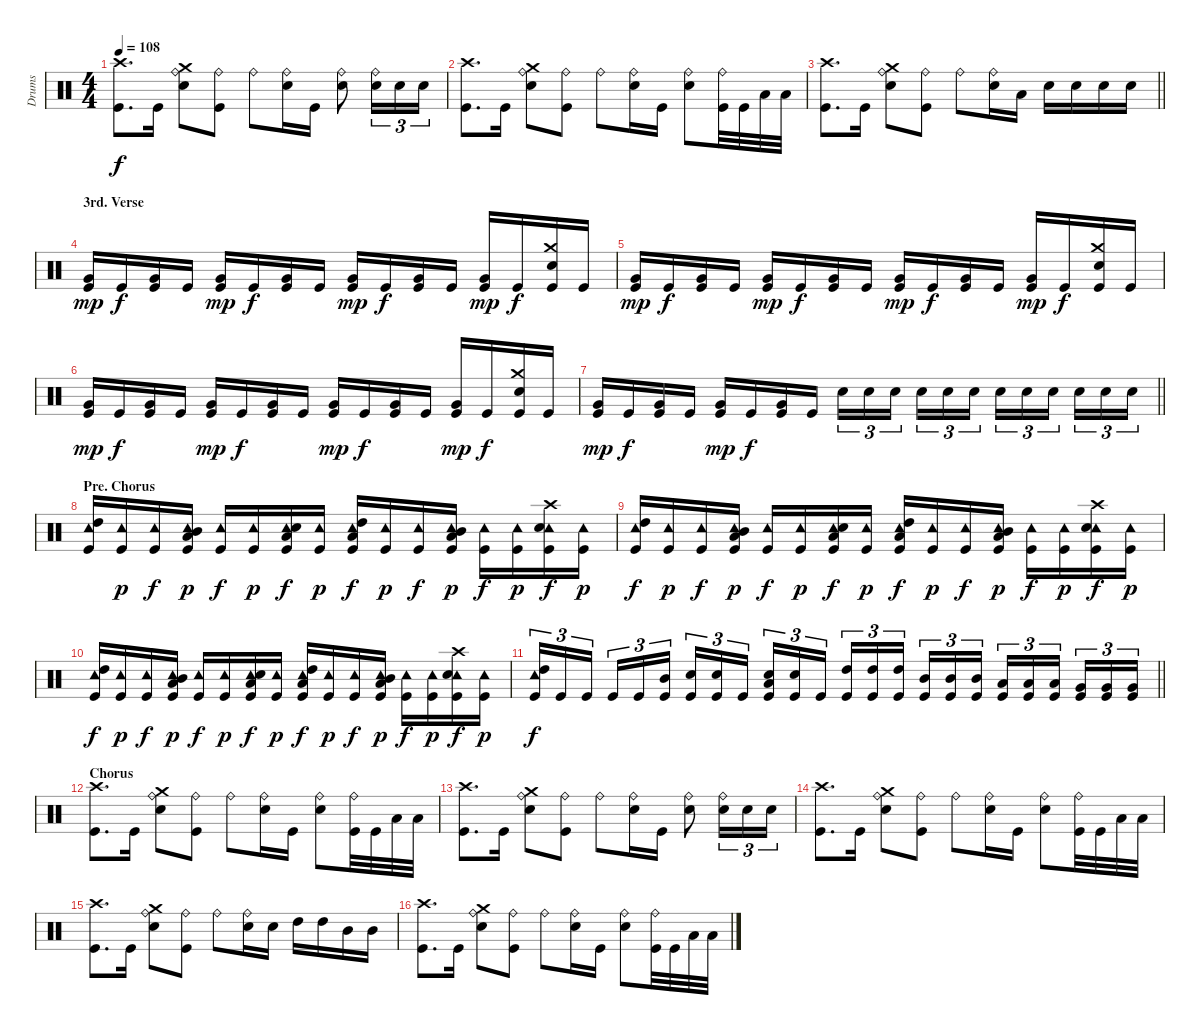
\track ("Drums" "Drums") {instrument percussion}
\staff {score}
\articulation defaults
\ts (4 4)
\tempo 108
\clef neutral
\ks c
("Crash high (hit)" "Kick (hit)").8{d dy f} "Kick (hit)".16 ("Crash medium (hit)" "Ride (bell)" "Electric Snare (hit)").8 ("Ride (bell)" "Kick (hit)").8 "Ride (bell)".8 ("Ride (bell)" "Electric Snare (hit)").16 "Kick (hit)".16 ("Ride (bell)" "Electric Snare (hit)").8 ("Ride (bell)" "Electric Snare (hit)").16{tu (3 2)} "Electric Snare (hit)".16{tu (3 2)} "Electric Snare (hit)".16{tu (3 2)} |
("Crash high (hit)" "Kick (hit)").8{d} "Kick (hit)".16 ("Crash medium (hit)" "Ride (bell)" "Electric Snare (hit)").8 ("Ride (bell)" "Kick (hit)").8 "Ride (bell)".8 ("Ride (bell)" "Electric Snare (hit)").16 "Kick (hit)".16 ("Ride (bell)" "Electric Snare (hit)").8 ("Ride (bell)" "Kick (hit)").32 "Kick (hit)".32 "Low Tom (hit)".32 "Low Tom (hit)".32 |
\barLineRight lightlight
("Crash high (hit)" "Kick (hit)").8{d} "Kick (hit)".16 ("Crash medium (hit)" "Ride (bell)" "Electric Snare (hit)").8 ("Ride (bell)" "Kick (hit)").8 "Ride (bell)".8 ("Ride (bell)" "Electric Snare (hit)").16 "Low Tom (hit)".16 "Electric Snare (hit)".16 "Electric Snare (hit)".16 "Electric Snare (hit)".16 "Electric Snare (hit)".16 |
\section ("" "3rd. Verse")
("Very Low Tom (hit)" "Kick (hit)").16{dy mp} "Kick (hit)".16{dy f} ("Very Low Tom (hit)" "Kick (hit)").16 "Kick (hit)".16 ("Very Low Tom (hit)" "Kick (hit)").16{dy mp} "Kick (hit)".16{dy f} ("Very Low Tom (hit)" "Kick (hit)").16 "Kick (hit)".16 ("Very Low Tom (hit)" "Kick (hit)").16{dy mp} "Kick (hit)".16{dy f} ("Very Low Tom (hit)" "Kick (hit)").16 "Kick (hit)".16 ("Very Low Tom (hit)" "Kick (hit)").16{dy mp} "Kick (hit)".16{dy f} ("Crash medium (hit)" "Electric Snare (hit)" "Kick (hit)").16 "Kick (hit)".16 |
("Very Low Tom (hit)" "Kick (hit)").16{dy mp} "Kick (hit)".16{dy f} ("Very Low Tom (hit)" "Kick (hit)").16 "Kick (hit)".16 ("Very Low Tom (hit)" "Kick (hit)").16{dy mp} "Kick (hit)".16{dy f} ("Very Low Tom (hit)" "Kick (hit)").16 "Kick (hit)".16 ("Very Low Tom (hit)" "Kick (hit)").16{dy mp} "Kick (hit)".16{dy f} ("Very Low Tom (hit)" "Kick (hit)").16 "Kick (hit)".16 ("Very Low Tom (hit)" "Kick (hit)").16{dy mp} "Kick (hit)".16{dy f} ("Crash medium (hit)" "Electric Snare (hit)" "Kick (hit)").16 "Kick (hit)".16 |
("Very Low Tom (hit)" "Kick (hit)").16{dy mp} "Kick (hit)".16{dy f} ("Very Low Tom (hit)" "Kick (hit)").16 "Kick (hit)".16 ("Very Low Tom (hit)" "Kick (hit)").16{dy mp} "Kick (hit)".16{dy f} ("Very Low Tom (hit)" "Kick (hit)").16 "Kick (hit)".16 ("Very Low Tom (hit)" "Kick (hit)").16{dy mp} "Kick (hit)".16{dy f} ("Very Low Tom (hit)" "Kick (hit)").16 "Kick (hit)".16 ("Very Low Tom (hit)" "Kick (hit)").16{dy mp} "Kick (hit)".16{dy f} ("Crash medium (hit)" "Electric Snare (hit)" "Kick (hit)").16 "Kick (hit)".16 |
\barLineRight lightlight
("Very Low Tom (hit)" "Kick (hit)").16{dy mp} "Kick (hit)".16{dy f} ("Very Low Tom (hit)" "Kick (hit)").16 "Kick (hit)".16 ("Very Low Tom (hit)" "Kick (hit)").16{dy mp} "Kick (hit)".16{dy f} ("Very Low Tom (hit)" "Kick (hit)").16 "Kick (hit)".16 "Electric Snare (hit)".16{tu (3 2)} "Electric Snare (hit)".16{tu (3 2)} "Electric Snare (hit)".16{tu (3 2) beam splitsecondary} "Electric Snare (hit)".16{tu (3 2)} "Electric Snare (hit)".16{tu (3 2)} "Electric Snare (hit)".16{tu (3 2)} "Electric Snare (hit)".16{tu (3 2)} "Electric Snare (hit)".16{tu (3 2)} "Electric Snare (hit)".16{tu (3 2) beam splitsecondary} "Electric Snare (hit)".16{tu (3 2)} "Electric Snare (hit)".16{tu (3 2)} "Electric Snare (hit)".16{tu (3 2)} |
\section ("" "Pre. Chorus")
("Tambourine (hit)" "High Tom (hit)" "Kick (hit)").16 ("Tambourine (hit)" "Kick (hit)").16{dy p} ("Tambourine (hit)" "Kick (hit)").16{dy f} ("Tambourine (hit)" "Mid Tom (hit)" "Low Tom (hit)" "Kick (hit)").16{dy p} ("Tambourine (hit)" "Kick (hit)").16{dy f} ("Tambourine (hit)" "Kick (hit)").16{dy p} ("Tambourine (hit)" "Low Tom (hit)" "Electric Snare (hit)" "Kick (hit)").16{dy f} ("Tambourine (hit)" "Kick (hit)").16{dy p} ("Tambourine (hit)" "High Tom (hit)" "Low Tom (hit)" "Kick (hit)").16{dy f} ("Tambourine (hit)" "Kick (hit)").16{dy p} ("Tambourine (hit)" "Kick (hit)").16{dy f} ("Tambourine (hit)" "Mid Tom (hit)" "Low Tom (hit)" "Kick (hit)").16{dy p} ("Tambourine (hit)" "Kick (hit)").16{dy f} ("Tambourine (hit)" "Kick (hit)").16{dy p} ("Tambourine (hit)" "Crash high (hit)" "Electric Snare (hit)" "Kick (hit)").16{dy f} ("Tambourine (hit)" "Kick (hit)").16{dy p} |
("Tambourine (hit)" "High Tom (hit)" "Kick (hit)").16{dy f} ("Tambourine (hit)" "Kick (hit)").16{dy p} ("Tambourine (hit)" "Kick (hit)").16{dy f} ("Tambourine (hit)" "Mid Tom (hit)" "Low Tom (hit)" "Kick (hit)").16{dy p} ("Tambourine (hit)" "Kick (hit)").16{dy f} ("Tambourine (hit)" "Kick (hit)").16{dy p} ("Tambourine (hit)" "Low Tom (hit)" "Electric Snare (hit)" "Kick (hit)").16{dy f} ("Tambourine (hit)" "Kick (hit)").16{dy p} ("Tambourine (hit)" "High Tom (hit)" "Low Tom (hit)" "Kick (hit)").16{dy f} ("Tambourine (hit)" "Kick (hit)").16{dy p} ("Tambourine (hit)" "Kick (hit)").16{dy f} ("Tambourine (hit)" "Mid Tom (hit)" "Low Tom (hit)" "Kick (hit)").16{dy p} ("Tambourine (hit)" "Kick (hit)").16{dy f} ("Tambourine (hit)" "Kick (hit)").16{dy p} ("Tambourine (hit)" "Crash high (hit)" "Electric Snare (hit)" "Kick (hit)").16{dy f} ("Tambourine (hit)" "Kick (hit)").16{dy p} |
("Tambourine (hit)" "High Tom (hit)" "Kick (hit)").16{dy f} ("Tambourine (hit)" "Kick (hit)").16{dy p} ("Tambourine (hit)" "Kick (hit)").16{dy f} ("Tambourine (hit)" "Mid Tom (hit)" "Low Tom (hit)" "Kick (hit)").16{dy p} ("Tambourine (hit)" "Kick (hit)").16{dy f} ("Tambourine (hit)" "Kick (hit)").16{dy p} ("Tambourine (hit)" "Low Tom (hit)" "Electric Snare (hit)" "Kick (hit)").16{dy f} ("Tambourine (hit)" "Kick (hit)").16{dy p} ("Tambourine (hit)" "High Tom (hit)" "Low Tom (hit)" "Kick (hit)").16{dy f} ("Tambourine (hit)" "Kick (hit)").16{dy p} ("Tambourine (hit)" "Kick (hit)").16{dy f} ("Tambourine (hit)" "Mid Tom (hit)" "Low Tom (hit)" "Kick (hit)").16{dy p} ("Tambourine (hit)" "Kick (hit)").16{dy f} ("Tambourine (hit)" "Kick (hit)").16{dy p} ("Tambourine (hit)" "Crash high (hit)" "Electric Snare (hit)" "Kick (hit)").16{dy f} ("Tambourine (hit)" "Kick (hit)").16{dy p} |
\barLineRight lightlight
("Tambourine (hit)" "High Tom (hit)" "Kick (hit)").16{tu (3 2) dy f} "Kick (hit)".16{tu (3 2)} "Kick (hit)".16{tu (3 2) beam splitsecondary} "Kick (hit)".16{tu (3 2)} "Kick (hit)".16{tu (3 2)} ("Mid Tom (hit)" "Kick (hit)").16{tu (3 2)} ("Electric Snare (hit)" "Kick (hit)").16{tu (3 2)} ("Electric Snare (hit)" "Kick (hit)").16{tu (3 2)} "Kick (hit)".16{tu (3 2) beam splitsecondary} ("Low Tom (hit)" "Electric Snare (hit)" "Kick (hit)").16{tu (3 2)} ("Electric Snare (hit)" "Kick (hit)").16{tu (3 2)} "Kick (hit)".16{tu (3 2)} ("High Tom (hit)" "Kick (hit)").16{tu (3 2)} ("High Tom (hit)" "Kick (hit)").16{tu (3 2)} ("High Tom (hit)" "Kick (hit)").16{tu (3 2) beam splitsecondary} ("Mid Tom (hit)" "Kick (hit)").16{tu (3 2)} ("Mid Tom (hit)" "Kick (hit)").16{tu (3 2)} ("Mid Tom (hit)" "Kick (hit)").16{tu (3 2)} ("Low Tom (hit)" "Kick (hit)").16{tu (3 2)} ("Low Tom (hit)" "Kick (hit)").16{tu (3 2)} ("Low Tom (hit)" "Kick (hit)").16{tu (3 2) beam splitsecondary} ("Very Low Tom (hit)" "Kick (hit)").16{tu (3 2)} ("Very Low Tom (hit)" "Kick (hit)").16{tu (3 2)} ("Very Low Tom (hit)" "Kick (hit)").16{tu (3 2)} |
\section ("" "Chorus")
("Crash high (hit)" "Kick (hit)").8{d} "Kick (hit)".16 ("Crash medium (hit)" "Ride (bell)" "Electric Snare (hit)").8 ("Ride (bell)" "Kick (hit)").8 "Ride (bell)".8 ("Ride (bell)" "Electric Snare (hit)").16 "Kick (hit)".16 ("Ride (bell)" "Electric Snare (hit)").8 ("Ride (bell)" "Kick (hit)").32 "Kick (hit)".32 "Low Tom (hit)".32 "Low Tom (hit)".32 |
("Crash high (hit)" "Kick (hit)").8{d} "Kick (hit)".16 ("Crash medium (hit)" "Ride (bell)" "Electric Snare (hit)").8 ("Ride (bell)" "Kick (hit)").8 "Ride (bell)".8 ("Ride (bell)" "Electric Snare (hit)").16 "Kick (hit)".16 ("Ride (bell)" "Electric Snare (hit)").8 ("Ride (bell)" "Electric Snare (hit)").16{tu (3 2)} "Electric Snare (hit)".16{tu (3 2)} "Electric Snare (hit)".16{tu (3 2)} |
("Crash high (hit)" "Kick (hit)").8{d} "Kick (hit)".16 ("Crash medium (hit)" "Ride (bell)" "Electric Snare (hit)").8 ("Ride (bell)" "Kick (hit)").8 "Ride (bell)".8 ("Ride (bell)" "Electric Snare (hit)").16 "Kick (hit)".16 ("Ride (bell)" "Electric Snare (hit)").8 ("Ride (bell)" "Kick (hit)").32 "Kick (hit)".32 "Low Tom (hit)".32 "Low Tom (hit)".32 |
("Crash high (hit)" "Kick (hit)").8{d} "Kick (hit)".16 ("Crash medium (hit)" "Ride (bell)" "Electric Snare (hit)").8 ("Ride (bell)" "Kick (hit)").8 "Ride (bell)".8 ("Ride (bell)" "Electric Snare (hit)").16 "Electric Snare (hit)".16 "High Tom (hit)".16 "High Tom (hit)".16 "Mid Tom (hit)".16 "Mid Tom (hit)".16 |
("Crash high (hit)" "Kick (hit)").8{d} "Kick (hit)".16 ("Crash medium (hit)" "Ride (bell)" "Electric Snare (hit)").8 ("Ride (bell)" "Kick (hit)").8 "Ride (bell)".8 ("Ride (bell)" "Electric Snare (hit)").16 "Kick (hit)".16 ("Ride (bell)" "Electric Snare (hit)").8 ("Ride (bell)" "Kick (hit)").32 "Kick (hit)".32 "Low Tom (hit)".32 "Low Tom (hit)".32
